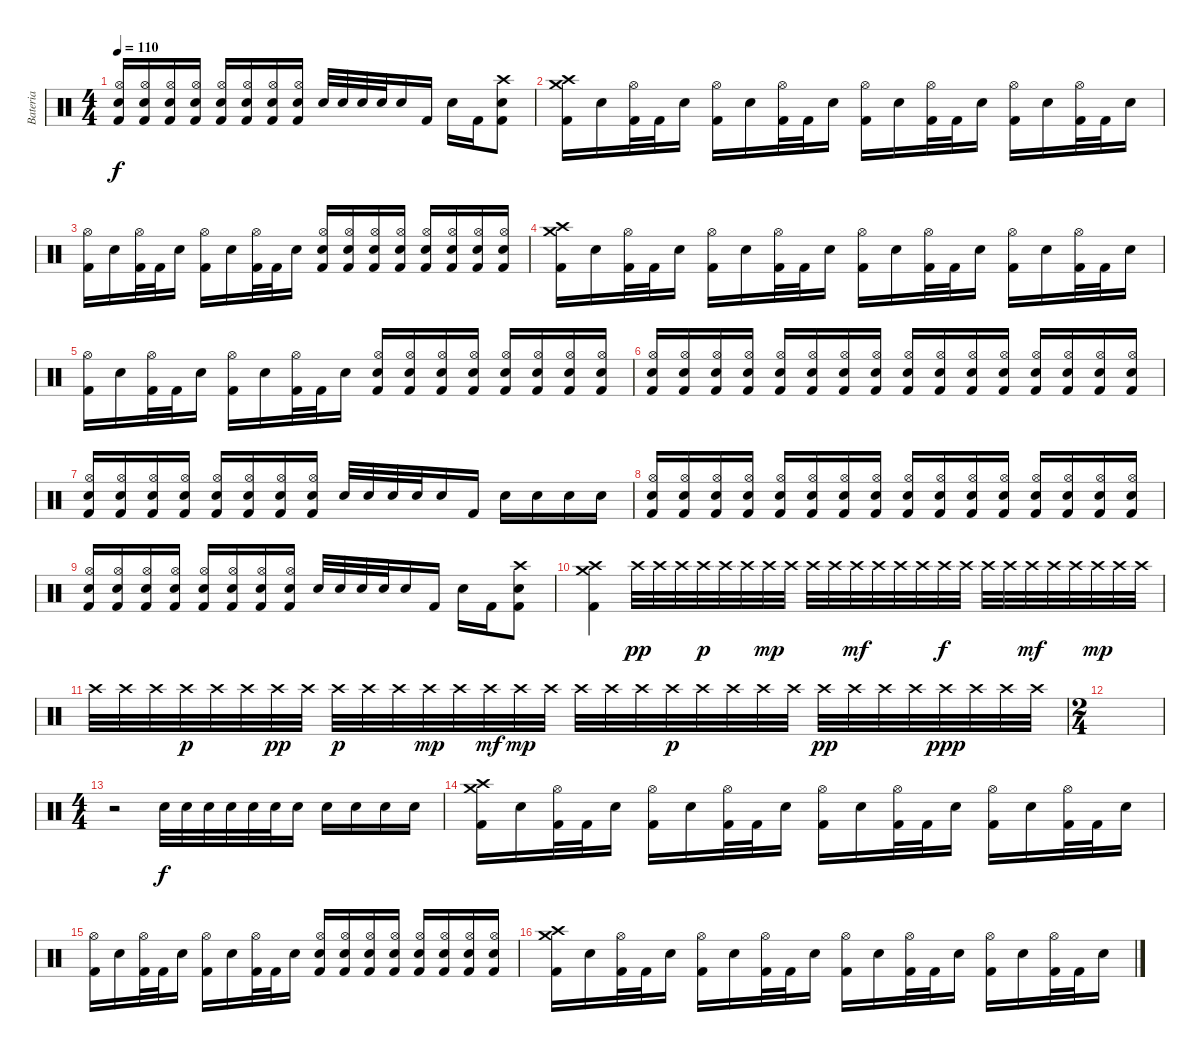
\track ("Bateria" "Bateria") {instrument percussion}
\staff {score}
\articulation defaults
\ts (4 4)
\tempo 110
\clef neutral
\ks c
("Kick (hit) 2" "Hi-Hat (open)" "Electric Snare (hit)").16{dy f} ("Kick (hit) 2" "Hi-Hat (open)" "Electric Snare (hit)").16 ("Kick (hit) 2" "Hi-Hat (open)" "Electric Snare (hit)").16 ("Kick (hit) 2" "Hi-Hat (open)" "Electric Snare (hit)").16 ("Kick (hit) 2" "Hi-Hat (open)" "Electric Snare (hit)").16 ("Kick (hit) 2" "Hi-Hat (open)" "Electric Snare (hit)").16 ("Kick (hit) 2" "Hi-Hat (open)" "Electric Snare (hit)").16 ("Kick (hit) 2" "Hi-Hat (open)" "Electric Snare (hit)").16 "Electric Snare (hit)".32 "Electric Snare (hit)".32 "Electric Snare (hit)".32 "Electric Snare (hit)".32 "Electric Snare (hit)".16 "Kick (hit) 2".16 "Electric Snare (hit)".16 "Kick (hit) 2".16 ("Kick (hit) 2" "Crash high (hit)" "Electric Snare (hit)").8 |
("Kick (hit) 2" "Crash medium (hit)" "Crash high (hit)").16 "Electric Snare (hit)".16 ("Kick (hit) 2" "Hi-Hat (open)").32 "Kick (hit) 2".32 "Electric Snare (hit)".16 ("Kick (hit) 2" "Hi-Hat (open)").16 "Electric Snare (hit)".16 ("Kick (hit) 2" "Hi-Hat (open)").32 "Kick (hit) 2".32 "Electric Snare (hit)".16 ("Kick (hit) 2" "Hi-Hat (open)").16 "Electric Snare (hit)".16 ("Kick (hit) 2" "Hi-Hat (open)").32 "Kick (hit) 2".32 "Electric Snare (hit)".16 ("Kick (hit) 2" "Hi-Hat (open)").16 "Electric Snare (hit)".16 ("Kick (hit) 2" "Hi-Hat (open)").32 "Kick (hit) 2".32 "Electric Snare (hit)".16 |
("Kick (hit) 2" "Hi-Hat (open)").16 "Electric Snare (hit)".16 ("Kick (hit) 2" "Hi-Hat (open)").32 "Kick (hit) 2".32 "Electric Snare (hit)".16 ("Kick (hit) 2" "Hi-Hat (open)").16 "Electric Snare (hit)".16 ("Kick (hit) 2" "Hi-Hat (open)").32 "Kick (hit) 2".32 "Electric Snare (hit)".16 ("Kick (hit) 2" "Hi-Hat (open)" "Electric Snare (hit)").16 ("Kick (hit) 2" "Hi-Hat (open)" "Electric Snare (hit)").16 ("Kick (hit) 2" "Hi-Hat (open)" "Electric Snare (hit)").16 ("Kick (hit) 2" "Hi-Hat (open)" "Electric Snare (hit)").16 ("Kick (hit) 2" "Hi-Hat (open)" "Electric Snare (hit)").16 ("Kick (hit) 2" "Hi-Hat (open)" "Electric Snare (hit)").16 ("Kick (hit) 2" "Hi-Hat (open)" "Electric Snare (hit)").16 ("Kick (hit) 2" "Hi-Hat (open)" "Electric Snare (hit)").16 |
("Kick (hit) 2" "Crash medium (hit)" "Crash high (hit)").16 "Electric Snare (hit)".16 ("Kick (hit) 2" "Hi-Hat (open)").32 "Kick (hit) 2".32 "Electric Snare (hit)".16 ("Kick (hit) 2" "Hi-Hat (open)").16 "Electric Snare (hit)".16 ("Kick (hit) 2" "Hi-Hat (open)").32 "Kick (hit) 2".32 "Electric Snare (hit)".16 ("Kick (hit) 2" "Hi-Hat (open)").16 "Electric Snare (hit)".16 ("Kick (hit) 2" "Hi-Hat (open)").32 "Kick (hit) 2".32 "Electric Snare (hit)".16 ("Kick (hit) 2" "Hi-Hat (open)").16 "Electric Snare (hit)".16 ("Kick (hit) 2" "Hi-Hat (open)").32 "Kick (hit) 2".32 "Electric Snare (hit)".16 |
("Kick (hit) 2" "Hi-Hat (open)").16 "Electric Snare (hit)".16 ("Kick (hit) 2" "Hi-Hat (open)").32 "Kick (hit) 2".32 "Electric Snare (hit)".16 ("Kick (hit) 2" "Hi-Hat (open)").16 "Electric Snare (hit)".16 ("Kick (hit) 2" "Hi-Hat (open)").32 "Kick (hit) 2".32 "Electric Snare (hit)".16 ("Kick (hit) 2" "Hi-Hat (open)" "Electric Snare (hit)").16 ("Kick (hit) 2" "Hi-Hat (open)" "Electric Snare (hit)").16 ("Kick (hit) 2" "Hi-Hat (open)" "Electric Snare (hit)").16 ("Kick (hit) 2" "Hi-Hat (open)" "Electric Snare (hit)").16 ("Kick (hit) 2" "Hi-Hat (open)" "Electric Snare (hit)").16 ("Kick (hit) 2" "Hi-Hat (open)" "Electric Snare (hit)").16 ("Kick (hit) 2" "Hi-Hat (open)" "Electric Snare (hit)").16 ("Kick (hit) 2" "Hi-Hat (open)" "Electric Snare (hit)").16 |
("Kick (hit) 2" "Hi-Hat (open)" "Electric Snare (hit)").16 ("Kick (hit) 2" "Hi-Hat (open)" "Electric Snare (hit)").16 ("Kick (hit) 2" "Hi-Hat (open)" "Electric Snare (hit)").16 ("Kick (hit) 2" "Hi-Hat (open)" "Electric Snare (hit)").16 ("Kick (hit) 2" "Hi-Hat (open)" "Electric Snare (hit)").16 ("Kick (hit) 2" "Hi-Hat (open)" "Electric Snare (hit)").16 ("Kick (hit) 2" "Hi-Hat (open)" "Electric Snare (hit)").16 ("Kick (hit) 2" "Hi-Hat (open)" "Electric Snare (hit)").16 ("Kick (hit) 2" "Hi-Hat (open)" "Electric Snare (hit)").16 ("Kick (hit) 2" "Hi-Hat (open)" "Electric Snare (hit)").16 ("Kick (hit) 2" "Hi-Hat (open)" "Electric Snare (hit)").16 ("Kick (hit) 2" "Hi-Hat (open)" "Electric Snare (hit)").16 ("Kick (hit) 2" "Hi-Hat (open)" "Electric Snare (hit)").16 ("Kick (hit) 2" "Hi-Hat (open)" "Electric Snare (hit)").16 ("Kick (hit) 2" "Hi-Hat (open)" "Electric Snare (hit)").16 ("Kick (hit) 2" "Hi-Hat (open)" "Electric Snare (hit)").16 |
("Kick (hit) 2" "Hi-Hat (open)" "Electric Snare (hit)").16 ("Kick (hit) 2" "Hi-Hat (open)" "Electric Snare (hit)").16 ("Kick (hit) 2" "Hi-Hat (open)" "Electric Snare (hit)").16 ("Kick (hit) 2" "Hi-Hat (open)" "Electric Snare (hit)").16 ("Kick (hit) 2" "Hi-Hat (open)" "Electric Snare (hit)").16 ("Kick (hit) 2" "Hi-Hat (open)" "Electric Snare (hit)").16 ("Kick (hit) 2" "Hi-Hat (open)" "Electric Snare (hit)").16 ("Kick (hit) 2" "Hi-Hat (open)" "Electric Snare (hit)").16 "Electric Snare (hit)".32 "Electric Snare (hit)".32 "Electric Snare (hit)".32 "Electric Snare (hit)".32 "Electric Snare (hit)".16 "Kick (hit) 2".16 "Electric Snare (hit)".16 "Electric Snare (hit)".16 "Electric Snare (hit)".16 "Electric Snare (hit)".16 |
("Kick (hit) 2" "Hi-Hat (open)" "Electric Snare (hit)").16 ("Kick (hit) 2" "Hi-Hat (open)" "Electric Snare (hit)").16 ("Kick (hit) 2" "Hi-Hat (open)" "Electric Snare (hit)").16 ("Kick (hit) 2" "Hi-Hat (open)" "Electric Snare (hit)").16 ("Kick (hit) 2" "Hi-Hat (open)" "Electric Snare (hit)").16 ("Kick (hit) 2" "Hi-Hat (open)" "Electric Snare (hit)").16 ("Kick (hit) 2" "Hi-Hat (open)" "Electric Snare (hit)").16 ("Kick (hit) 2" "Hi-Hat (open)" "Electric Snare (hit)").16 ("Kick (hit) 2" "Hi-Hat (open)" "Electric Snare (hit)").16 ("Kick (hit) 2" "Hi-Hat (open)" "Electric Snare (hit)").16 ("Kick (hit) 2" "Hi-Hat (open)" "Electric Snare (hit)").16 ("Kick (hit) 2" "Hi-Hat (open)" "Electric Snare (hit)").16 ("Kick (hit) 2" "Hi-Hat (open)" "Electric Snare (hit)").16 ("Kick (hit) 2" "Hi-Hat (open)" "Electric Snare (hit)").16 ("Kick (hit) 2" "Hi-Hat (open)" "Electric Snare (hit)").16 ("Kick (hit) 2" "Hi-Hat (open)" "Electric Snare (hit)").16 |
("Kick (hit) 2" "Hi-Hat (open)" "Electric Snare (hit)").16 ("Kick (hit) 2" "Hi-Hat (open)" "Electric Snare (hit)").16 ("Kick (hit) 2" "Hi-Hat (open)" "Electric Snare (hit)").16 ("Kick (hit) 2" "Hi-Hat (open)" "Electric Snare (hit)").16 ("Kick (hit) 2" "Hi-Hat (open)" "Electric Snare (hit)").16 ("Kick (hit) 2" "Hi-Hat (open)" "Electric Snare (hit)").16 ("Kick (hit) 2" "Hi-Hat (open)" "Electric Snare (hit)").16 ("Kick (hit) 2" "Hi-Hat (open)" "Electric Snare (hit)").16 "Electric Snare (hit)".32 "Electric Snare (hit)".32 "Electric Snare (hit)".32 "Electric Snare (hit)".32 "Electric Snare (hit)".16 "Kick (hit) 2".16 "Electric Snare (hit)".16 "Kick (hit) 2".16 ("Kick (hit) 2" "Crash high (hit)" "Electric Snare (hit)").8 |
("Kick (hit) 2" "Crash medium (hit)" "Crash high (hit)").4 "Crash high (hit)".32{dy pp} "Crash high (hit)".32 "Crash high (hit)".32 "Crash high (hit)".32{dy p} "Crash high (hit)".32 "Crash high (hit)".32 "Crash high (hit)".32{dy mp} "Crash high (hit)".32 "Crash high (hit)".32 "Crash high (hit)".32 "Crash high (hit)".32{dy mf} "Crash high (hit)".32 "Crash high (hit)".32 "Crash high (hit)".32 "Crash high (hit)".32{dy f} "Crash high (hit)".32 "Crash high (hit)".32 "Crash high (hit)".32 "Crash high (hit)".32{dy mf} "Crash high (hit)".32 "Crash high (hit)".32 "Crash high (hit)".32{dy mp} "Crash high (hit)".32 "Crash high (hit)".32 |
"Crash high (hit)".32 "Crash high (hit)".32 "Crash high (hit)".32 "Crash high (hit)".32{dy p} "Crash high (hit)".32 "Crash high (hit)".32 "Crash high (hit)".32{dy pp} "Crash high (hit)".32 "Crash high (hit)".32{dy p} "Crash high (hit)".32 "Crash high (hit)".32 "Crash high (hit)".32{dy mp} "Crash high (hit)".32 "Crash high (hit)".32{dy mf} "Crash high (hit)".32{dy mp} "Crash high (hit)".32 "Crash high (hit)".32 "Crash high (hit)".32 "Crash high (hit)".32 "Crash high (hit)".32{dy p} "Crash high (hit)".32 "Crash high (hit)".32 "Crash high (hit)".32 "Crash high (hit)".32 "Crash high (hit)".32{dy pp} "Crash high (hit)".32 "Crash high (hit)".32 "Crash high (hit)".32 "Crash high (hit)".32{dy ppp} "Crash high (hit)".32 "Crash high (hit)".32 "Crash high (hit)".32 |
\ts (2 4)
|
\ts (4 4)
r.2 "Electric Snare (hit)".32{dy f} "Electric Snare (hit)".32 "Electric Snare (hit)".32 "Electric Snare (hit)".32 "Electric Snare (hit)".32 "Electric Snare (hit)".32 "Electric Snare (hit)".16 "Electric Snare (hit)".16 "Electric Snare (hit)".16 "Electric Snare (hit)".16 "Electric Snare (hit)".16 |
("Kick (hit) 2" "Crash medium (hit)" "Crash high (hit)").16 "Electric Snare (hit)".16 ("Kick (hit) 2" "Hi-Hat (open)").32 "Kick (hit) 2".32 "Electric Snare (hit)".16 ("Kick (hit) 2" "Hi-Hat (open)").16 "Electric Snare (hit)".16 ("Kick (hit) 2" "Hi-Hat (open)").32 "Kick (hit) 2".32 "Electric Snare (hit)".16 ("Kick (hit) 2" "Hi-Hat (open)").16 "Electric Snare (hit)".16 ("Kick (hit) 2" "Hi-Hat (open)").32 "Kick (hit) 2".32 "Electric Snare (hit)".16 ("Kick (hit) 2" "Hi-Hat (open)").16 "Electric Snare (hit)".16 ("Kick (hit) 2" "Hi-Hat (open)").32 "Kick (hit) 2".32 "Electric Snare (hit)".16 |
("Kick (hit) 2" "Hi-Hat (open)").16 "Electric Snare (hit)".16 ("Kick (hit) 2" "Hi-Hat (open)").32 "Kick (hit) 2".32 "Electric Snare (hit)".16 ("Kick (hit) 2" "Hi-Hat (open)").16 "Electric Snare (hit)".16 ("Kick (hit) 2" "Hi-Hat (open)").32 "Kick (hit) 2".32 "Electric Snare (hit)".16 ("Kick (hit) 2" "Hi-Hat (open)" "Electric Snare (hit)").16 ("Kick (hit) 2" "Hi-Hat (open)" "Electric Snare (hit)").16 ("Kick (hit) 2" "Hi-Hat (open)" "Electric Snare (hit)").16 ("Kick (hit) 2" "Hi-Hat (open)" "Electric Snare (hit)").16 ("Kick (hit) 2" "Hi-Hat (open)" "Electric Snare (hit)").16 ("Kick (hit) 2" "Hi-Hat (open)" "Electric Snare (hit)").16 ("Kick (hit) 2" "Hi-Hat (open)" "Electric Snare (hit)").16 ("Kick (hit) 2" "Hi-Hat (open)" "Electric Snare (hit)").16 |
("Kick (hit) 2" "Crash medium (hit)" "Crash high (hit)").16 "Electric Snare (hit)".16 ("Kick (hit) 2" "Hi-Hat (open)").32 "Kick (hit) 2".32 "Electric Snare (hit)".16 ("Kick (hit) 2" "Hi-Hat (open)").16 "Electric Snare (hit)".16 ("Kick (hit) 2" "Hi-Hat (open)").32 "Kick (hit) 2".32 "Electric Snare (hit)".16 ("Kick (hit) 2" "Hi-Hat (open)").16 "Electric Snare (hit)".16 ("Kick (hit) 2" "Hi-Hat (open)").32 "Kick (hit) 2".32 "Electric Snare (hit)".16 ("Kick (hit) 2" "Hi-Hat (open)").16 "Electric Snare (hit)".16 ("Kick (hit) 2" "Hi-Hat (open)").32 "Kick (hit) 2".32 "Electric Snare (hit)".16
